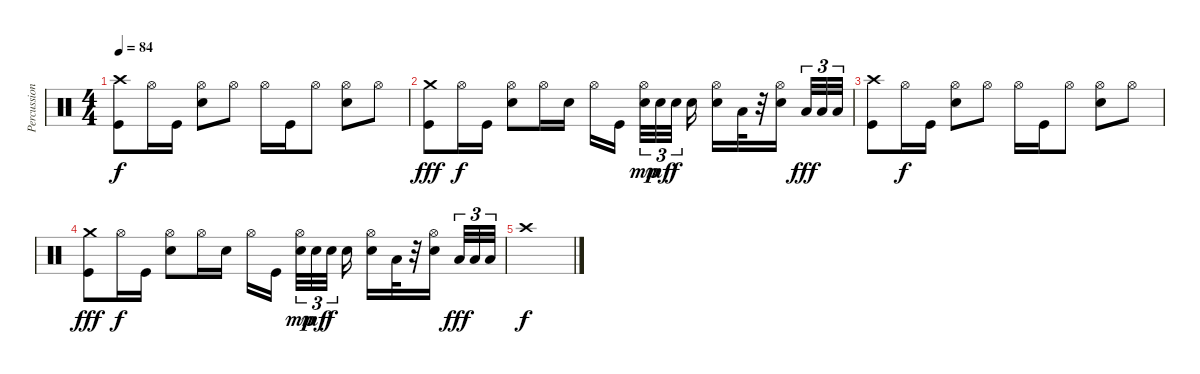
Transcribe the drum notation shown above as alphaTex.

\track ("Percussions" "Percussion") {instrument percussion}
\staff {score}
\articulation defaults
\ts (4 4)
\tempo 84
\clef neutral
\ks c
("Crash high (hit)" "Kick (hit)").8{dy f} "Hi-Hat (open)".16 "Kick (hit)".16 ("Hi-Hat (open)" "Snare (hit) 2").8 "Hi-Hat (open)".8 "Hi-Hat (open)".16 "Kick (hit)".16 "Hi-Hat (open)".8 ("Hi-Hat (open)" "Snare (hit) 2").8 "Hi-Hat (open)".8 |
("Crash medium (hit)" "Kick (hit)").8{dy fff} "Hi-Hat (open)".16{dy f} "Kick (hit)".16 ("Hi-Hat (open)" "Snare (hit) 2").8 "Hi-Hat (open)".16 "Snare (hit) 2".16 "Hi-Hat (open)".16 "Kick (hit)".16 ("Hi-Hat (open)" "Snare (hit) 2").32{tu (3 2) dy mp} "Snare (hit) 2".32{tu (3 2) dy mf} "Snare (hit) 2".32{tu (3 2) dy f} "Snare (hit) 2".16 ("Hi-Hat (open)" "Snare (hit) 2").16 "Low Tom (hit)".32 r.32 ("Hi-Hat (open)" "Snare (hit) 2").16 "Low Tom (hit)".32{tu (3 2) dy fff volume 5} "Low Tom (hit)".32{tu (3 2)} "Low Tom (hit)".32{tu (3 2)} |
("Crash high (hit)" "Kick (hit)").8{volume 0} "Hi-Hat (open)".16{dy f} "Kick (hit)".16 ("Hi-Hat (open)" "Snare (hit) 2").8 "Hi-Hat (open)".8 "Hi-Hat (open)".16 "Kick (hit)".16 "Hi-Hat (open)".8 ("Hi-Hat (open)" "Snare (hit) 2").8 "Hi-Hat (open)".8 |
("Crash medium (hit)" "Kick (hit)").8{dy fff} "Hi-Hat (open)".16{dy f} "Kick (hit)".16 ("Hi-Hat (open)" "Snare (hit) 2").8 "Hi-Hat (open)".16 "Snare (hit) 2".16 "Hi-Hat (open)".16 "Kick (hit)".16 ("Hi-Hat (open)" "Snare (hit) 2").32{tu (3 2) dy mp} "Snare (hit) 2".32{tu (3 2) dy mf} "Snare (hit) 2".32{tu (3 2) dy f} "Snare (hit) 2".16 ("Hi-Hat (open)" "Snare (hit) 2").16 "Low Tom (hit)".32 r.32 ("Hi-Hat (open)" "Snare (hit) 2").16 "Low Tom (hit)".32{tu (3 2) dy fff} "Low Tom (hit)".32{tu (3 2)} "Low Tom (hit)".32{tu (3 2)} |
"Crash high (hit)".1{dy f}
